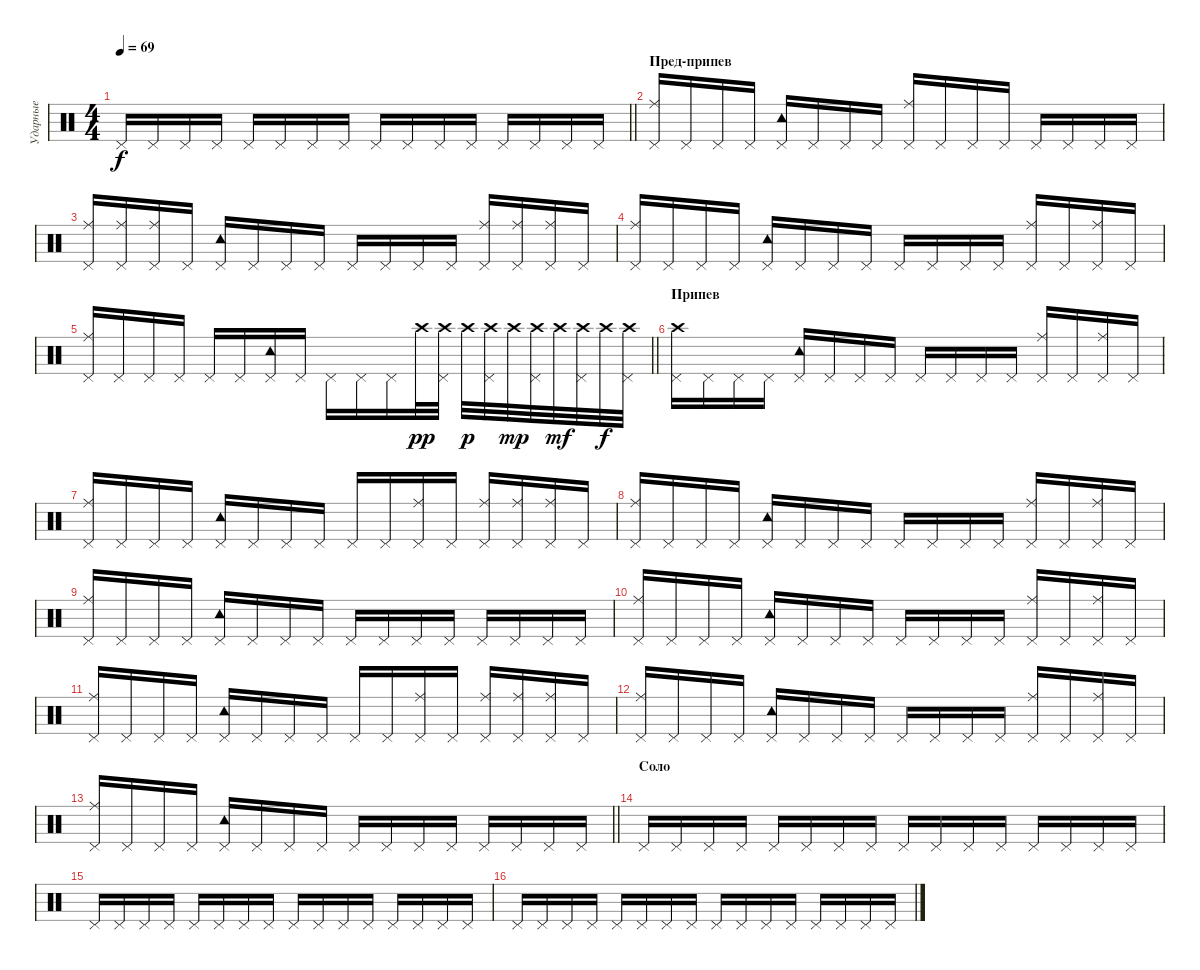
\track ("Ударные" "Ударные") {instrument percussion}
\staff {score}
\articulation defaults
\ts (4 4)
\tempo 69
\clef neutral
\barLineRight lightlight
\ks c "Pedal Hi-Hat (hit)".16{dy f} "Pedal Hi-Hat (hit)".16 "Pedal Hi-Hat (hit)".16 "Pedal Hi-Hat (hit)".16 "Pedal Hi-Hat (hit)".16 "Pedal Hi-Hat (hit)".16 "Pedal Hi-Hat (hit)".16 "Pedal Hi-Hat (hit)".16 "Pedal Hi-Hat (hit)".16 "Pedal Hi-Hat (hit)".16 "Pedal Hi-Hat (hit)".16 "Pedal Hi-Hat (hit)".16 "Pedal Hi-Hat (hit)".16 "Pedal Hi-Hat (hit)".16 "Pedal Hi-Hat (hit)".16 "Pedal Hi-Hat (hit)".16
|
\section ("" "Пред-припев")
("Pedal Hi-Hat (hit)" "Ride (middle)").16 "Pedal Hi-Hat (hit)".16 "Pedal Hi-Hat (hit)".16 "Pedal Hi-Hat (hit)".16 ("Pedal Hi-Hat (hit)" "Tambourine (hit)").16 "Pedal Hi-Hat (hit)".16 "Pedal Hi-Hat (hit)".16 "Pedal Hi-Hat (hit)".16 ("Pedal Hi-Hat (hit)" "Ride (middle)").16 "Pedal Hi-Hat (hit)".16 "Pedal Hi-Hat (hit)".16 "Pedal Hi-Hat (hit)".16 "Pedal Hi-Hat (hit)".16 "Pedal Hi-Hat (hit)".16 "Pedal Hi-Hat (hit)".16 "Pedal Hi-Hat (hit)".16 |
("Pedal Hi-Hat (hit)" "Ride (middle)").16 ("Pedal Hi-Hat (hit)" "Ride (middle)").16 ("Pedal Hi-Hat (hit)" "Ride (middle)").16 "Pedal Hi-Hat (hit)".16 ("Pedal Hi-Hat (hit)" "Tambourine (hit)").16 "Pedal Hi-Hat (hit)".16 "Pedal Hi-Hat (hit)".16 "Pedal Hi-Hat (hit)".16 "Pedal Hi-Hat (hit)".16 "Pedal Hi-Hat (hit)".16 "Pedal Hi-Hat (hit)".16 "Pedal Hi-Hat (hit)".16 ("Pedal Hi-Hat (hit)" "Ride (middle)").16 ("Pedal Hi-Hat (hit)" "Ride (middle)").16 ("Pedal Hi-Hat (hit)" "Ride (middle)").16 "Pedal Hi-Hat (hit)".16 |
("Pedal Hi-Hat (hit)" "Ride (middle)").16 "Pedal Hi-Hat (hit)".16 "Pedal Hi-Hat (hit)".16 "Pedal Hi-Hat (hit)".16 ("Pedal Hi-Hat (hit)" "Tambourine (hit)").16 "Pedal Hi-Hat (hit)".16 "Pedal Hi-Hat (hit)".16 "Pedal Hi-Hat (hit)".16 "Pedal Hi-Hat (hit)".16 "Pedal Hi-Hat (hit)".16 "Pedal Hi-Hat (hit)".16 "Pedal Hi-Hat (hit)".16 ("Pedal Hi-Hat (hit)" "Ride (middle)").16 "Pedal Hi-Hat (hit)".16 ("Pedal Hi-Hat (hit)" "Ride (middle)").16 "Pedal Hi-Hat (hit)".16 |
\barLineRight lightlight
("Pedal Hi-Hat (hit)" "Ride (middle)").16 "Pedal Hi-Hat (hit)".16 "Pedal Hi-Hat (hit)".16 "Pedal Hi-Hat (hit)".16 "Pedal Hi-Hat (hit)".16 "Pedal Hi-Hat (hit)".16 ("Pedal Hi-Hat (hit)" "Tambourine (hit)").16 "Pedal Hi-Hat (hit)".16 "Pedal Hi-Hat (hit)".16 "Pedal Hi-Hat (hit)".16 "Pedal Hi-Hat (hit)".16 "Crash high (hit)".32{dy pp} ("Pedal Hi-Hat (hit)" "Crash high (hit)").32 "Crash high (hit)".32{dy p} ("Pedal Hi-Hat (hit)" "Crash high (hit)").32 "Crash high (hit)".32{dy mp} ("Pedal Hi-Hat (hit)" "Crash high (hit)").32 "Crash high (hit)".32{dy mf} ("Pedal Hi-Hat (hit)" "Crash high (hit)").32 "Crash high (hit)".32{dy f} ("Pedal Hi-Hat (hit)" "Crash high (hit)").32 |
\section ("" "Припев")
("Pedal Hi-Hat (hit)" "Crash high (hit)").16 "Pedal Hi-Hat (hit)".16 "Pedal Hi-Hat (hit)".16 "Pedal Hi-Hat (hit)".16 ("Pedal Hi-Hat (hit)" "Tambourine (hit)").16 "Pedal Hi-Hat (hit)".16 "Pedal Hi-Hat (hit)".16 "Pedal Hi-Hat (hit)".16 "Pedal Hi-Hat (hit)".16 "Pedal Hi-Hat (hit)".16 "Pedal Hi-Hat (hit)".16 "Pedal Hi-Hat (hit)".16 ("Pedal Hi-Hat (hit)" "Ride (middle)").16 "Pedal Hi-Hat (hit)".16 ("Pedal Hi-Hat (hit)" "Ride (middle)").16 "Pedal Hi-Hat (hit)".16 |
("Pedal Hi-Hat (hit)" "Ride (middle)").16 "Pedal Hi-Hat (hit)".16 "Pedal Hi-Hat (hit)".16 "Pedal Hi-Hat (hit)".16 ("Pedal Hi-Hat (hit)" "Tambourine (hit)").16 "Pedal Hi-Hat (hit)".16 "Pedal Hi-Hat (hit)".16 "Pedal Hi-Hat (hit)".16 "Pedal Hi-Hat (hit)".16 "Pedal Hi-Hat (hit)".16 ("Pedal Hi-Hat (hit)" "Ride (middle)").16 "Pedal Hi-Hat (hit)".16 ("Pedal Hi-Hat (hit)" "Ride (middle)").16 ("Pedal Hi-Hat (hit)" "Ride (middle)").16 ("Pedal Hi-Hat (hit)" "Ride (middle)").16 "Pedal Hi-Hat (hit)".16 |
("Pedal Hi-Hat (hit)" "Ride (middle)").16 "Pedal Hi-Hat (hit)".16 "Pedal Hi-Hat (hit)".16 "Pedal Hi-Hat (hit)".16 ("Pedal Hi-Hat (hit)" "Tambourine (hit)").16 "Pedal Hi-Hat (hit)".16 "Pedal Hi-Hat (hit)".16 "Pedal Hi-Hat (hit)".16 "Pedal Hi-Hat (hit)".16 "Pedal Hi-Hat (hit)".16 "Pedal Hi-Hat (hit)".16 "Pedal Hi-Hat (hit)".16 ("Pedal Hi-Hat (hit)" "Ride (middle)").16 "Pedal Hi-Hat (hit)".16 ("Pedal Hi-Hat (hit)" "Ride (middle)").16 "Pedal Hi-Hat (hit)".16 |
("Pedal Hi-Hat (hit)" "Ride (middle)").16 "Pedal Hi-Hat (hit)".16 "Pedal Hi-Hat (hit)".16 "Pedal Hi-Hat (hit)".16 ("Pedal Hi-Hat (hit)" "Tambourine (hit)").16 "Pedal Hi-Hat (hit)".16 "Pedal Hi-Hat (hit)".16 "Pedal Hi-Hat (hit)".16 "Pedal Hi-Hat (hit)".16 "Pedal Hi-Hat (hit)".16 "Pedal Hi-Hat (hit)".16 "Pedal Hi-Hat (hit)".16 "Pedal Hi-Hat (hit)".16 "Pedal Hi-Hat (hit)".16 "Pedal Hi-Hat (hit)".16 "Pedal Hi-Hat (hit)".16 |
("Pedal Hi-Hat (hit)" "Ride (middle)").16 "Pedal Hi-Hat (hit)".16 "Pedal Hi-Hat (hit)".16 "Pedal Hi-Hat (hit)".16 ("Pedal Hi-Hat (hit)" "Tambourine (hit)").16 "Pedal Hi-Hat (hit)".16 "Pedal Hi-Hat (hit)".16 "Pedal Hi-Hat (hit)".16 "Pedal Hi-Hat (hit)".16 "Pedal Hi-Hat (hit)".16 "Pedal Hi-Hat (hit)".16 "Pedal Hi-Hat (hit)".16 ("Pedal Hi-Hat (hit)" "Ride (middle)").16 "Pedal Hi-Hat (hit)".16 ("Pedal Hi-Hat (hit)" "Ride (middle)").16 "Pedal Hi-Hat (hit)".16 |
("Pedal Hi-Hat (hit)" "Ride (middle)").16 "Pedal Hi-Hat (hit)".16 "Pedal Hi-Hat (hit)".16 "Pedal Hi-Hat (hit)".16 ("Pedal Hi-Hat (hit)" "Tambourine (hit)").16 "Pedal Hi-Hat (hit)".16 "Pedal Hi-Hat (hit)".16 "Pedal Hi-Hat (hit)".16 "Pedal Hi-Hat (hit)".16 "Pedal Hi-Hat (hit)".16 ("Pedal Hi-Hat (hit)" "Ride (middle)").16 "Pedal Hi-Hat (hit)".16 ("Pedal Hi-Hat (hit)" "Ride (middle)").16 ("Pedal Hi-Hat (hit)" "Ride (middle)").16 ("Pedal Hi-Hat (hit)" "Ride (middle)").16 "Pedal Hi-Hat (hit)".16 |
("Pedal Hi-Hat (hit)" "Ride (middle)").16 "Pedal Hi-Hat (hit)".16 "Pedal Hi-Hat (hit)".16 "Pedal Hi-Hat (hit)".16 ("Pedal Hi-Hat (hit)" "Tambourine (hit)").16 "Pedal Hi-Hat (hit)".16 "Pedal Hi-Hat (hit)".16 "Pedal Hi-Hat (hit)".16 "Pedal Hi-Hat (hit)".16 "Pedal Hi-Hat (hit)".16 "Pedal Hi-Hat (hit)".16 "Pedal Hi-Hat (hit)".16 ("Pedal Hi-Hat (hit)" "Ride (middle)").16 "Pedal Hi-Hat (hit)".16 ("Pedal Hi-Hat (hit)" "Ride (middle)").16 "Pedal Hi-Hat (hit)".16 |
\barLineRight lightlight
("Pedal Hi-Hat (hit)" "Ride (middle)").16 "Pedal Hi-Hat (hit)".16 "Pedal Hi-Hat (hit)".16 "Pedal Hi-Hat (hit)".16 ("Pedal Hi-Hat (hit)" "Tambourine (hit)").16 "Pedal Hi-Hat (hit)".16 "Pedal Hi-Hat (hit)".16 "Pedal Hi-Hat (hit)".16 "Pedal Hi-Hat (hit)".16 "Pedal Hi-Hat (hit)".16 "Pedal Hi-Hat (hit)".16 "Pedal Hi-Hat (hit)".16 "Pedal Hi-Hat (hit)".16 "Pedal Hi-Hat (hit)".16 "Pedal Hi-Hat (hit)".16 "Pedal Hi-Hat (hit)".16 |
\section ("" "Соло")
"Pedal Hi-Hat (hit)".16 "Pedal Hi-Hat (hit)".16 "Pedal Hi-Hat (hit)".16 "Pedal Hi-Hat (hit)".16 "Pedal Hi-Hat (hit)".16 "Pedal Hi-Hat (hit)".16 "Pedal Hi-Hat (hit)".16 "Pedal Hi-Hat (hit)".16 "Pedal Hi-Hat (hit)".16 "Pedal Hi-Hat (hit)".16 "Pedal Hi-Hat (hit)".16 "Pedal Hi-Hat (hit)".16 "Pedal Hi-Hat (hit)".16 "Pedal Hi-Hat (hit)".16 "Pedal Hi-Hat (hit)".16 "Pedal Hi-Hat (hit)".16 |
"Pedal Hi-Hat (hit)".16 "Pedal Hi-Hat (hit)".16 "Pedal Hi-Hat (hit)".16 "Pedal Hi-Hat (hit)".16 "Pedal Hi-Hat (hit)".16 "Pedal Hi-Hat (hit)".16 "Pedal Hi-Hat (hit)".16 "Pedal Hi-Hat (hit)".16 "Pedal Hi-Hat (hit)".16 "Pedal Hi-Hat (hit)".16 "Pedal Hi-Hat (hit)".16 "Pedal Hi-Hat (hit)".16 "Pedal Hi-Hat (hit)".16 "Pedal Hi-Hat (hit)".16 "Pedal Hi-Hat (hit)".16 "Pedal Hi-Hat (hit)".16 |
"Pedal Hi-Hat (hit)".16 "Pedal Hi-Hat (hit)".16 "Pedal Hi-Hat (hit)".16 "Pedal Hi-Hat (hit)".16 "Pedal Hi-Hat (hit)".16 "Pedal Hi-Hat (hit)".16 "Pedal Hi-Hat (hit)".16 "Pedal Hi-Hat (hit)".16 "Pedal Hi-Hat (hit)".16 "Pedal Hi-Hat (hit)".16 "Pedal Hi-Hat (hit)".16 "Pedal Hi-Hat (hit)".16 "Pedal Hi-Hat (hit)".16 "Pedal Hi-Hat (hit)".16 "Pedal Hi-Hat (hit)".16 "Pedal Hi-Hat (hit)".16
